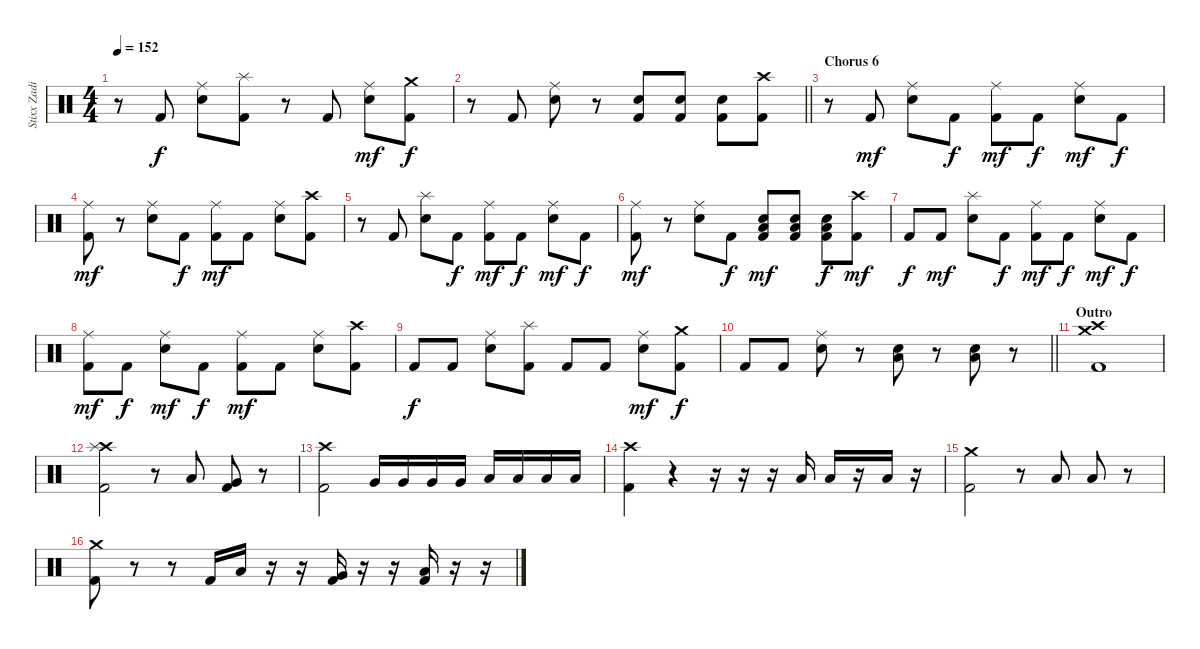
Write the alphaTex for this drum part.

\track ("Stixx Zadinia" "Stixx Zadi") {instrument percussion}
\staff {score}
\articulation defaults
\ts (4 4)
\tempo 152
\clef neutral
\ks c
r.8{dy mf} "Kick (hit) 2".8{dy f} ("Ride (middle)" "Snare (hit) 2").8 ("Splash (hit)" "Kick (hit) 2").8 r.8 "Kick (hit) 2".8 ("Ride (middle)" "Snare (hit) 2").8{dy mf} ("Crash medium (hit)" "Kick (hit) 2").8{dy f} |
\barLineRight lightlight
r.8 "Kick (hit) 2".8 ("Ride (middle)" "Snare (hit) 2").8 r.8 ("Snare (hit) 2" "Kick (hit) 2").8 ("Snare (hit) 2" "Kick (hit) 2").8 ("Snare (hit) 2" "Kick (hit) 2").8 ("Crash high (hit)" "Kick (hit) 2").8 |
\section ("" "Chorus 6")
r.8 "Kick (hit) 2".8{dy mf} ("Ride (middle)" "Snare (hit) 2").8 "Kick (hit) 2".8{dy f} ("Ride (middle)" "Kick (hit) 2").8{dy mf} "Kick (hit) 2".8{dy f} ("Ride (middle)" "Snare (hit) 2").8{dy mf} "Kick (hit) 2".8{dy f} |
("Ride (middle)" "Kick (hit) 2").8{dy mf} r.8 ("Ride (middle)" "Snare (hit) 2").8 "Kick (hit) 2".8{dy f} ("Ride (middle)" "Kick (hit) 2").8{dy mf} "Kick (hit) 2".8 ("Ride (middle)" "Snare (hit) 2").8 ("Crash high (hit)" "Kick (hit) 2").8 |
r.8 "Kick (hit) 2".8 ("Splash (hit)" "Snare (hit) 2").8 "Kick (hit) 2".8{dy f} ("Ride (middle)" "Kick (hit) 2").8{dy mf} "Kick (hit) 2".8{dy f} ("Ride (middle)" "Snare (hit) 2").8{dy mf} "Kick (hit) 2".8{dy f} |
("Ride (middle)" "Kick (hit) 2").8{dy mf} r.8 ("Ride (middle)" "Snare (hit) 2").8 "Kick (hit) 2".8{dy f} ("Low Floor Tom (hit)" "Snare (hit) 2" "Kick (hit) 2").8{dy mf} ("Low Floor Tom (hit)" "Snare (hit) 2" "Kick (hit) 2").8 ("Low Floor Tom (hit)" "Snare (hit) 2" "Kick (hit) 2").8{dy f} ("Crash high (hit)" "Kick (hit) 2").8{dy mf} |
"Kick (hit) 2".8{dy f} "Kick (hit) 2".8{dy mf} ("Splash (hit)" "Snare (hit) 2").8 "Kick (hit) 2".8{dy f} ("Ride (middle)" "Kick (hit) 2").8{dy mf} "Kick (hit) 2".8{dy f} ("Ride (middle)" "Snare (hit) 2").8{dy mf} "Kick (hit) 2".8{dy f} |
("Ride (middle)" "Kick (hit) 2").8{dy mf} "Kick (hit) 2".8{dy f} ("Ride (middle)" "Snare (hit) 2").8{dy mf} "Kick (hit) 2".8{dy f} ("Ride (middle)" "Kick (hit) 2").8{dy mf} "Kick (hit) 2".8 ("Ride (middle)" "Snare (hit) 2").8 ("Crash high (hit)" "Kick (hit) 2").8 |
"Kick (hit) 2".8{dy f} "Kick (hit) 2".8 ("Ride (middle)" "Snare (hit) 2").8 ("Splash (hit)" "Kick (hit) 2").8 "Kick (hit) 2".8 "Kick (hit) 2".8 ("Ride (middle)" "Snare (hit) 2").8{dy mf} ("Crash medium (hit)" "Kick (hit) 2").8{dy f} |
\barLineRight lightlight "Kick (hit) 2".8 "Kick (hit) 2".8
("Ride (middle)" "Snare (hit) 2").8 r.8 ("Low Floor Tom (hit)" "Snare (hit) 2").8 r.8 ("Low Floor Tom (hit)" "Snare (hit) 2").8 r.8 |
\section ("" "Outro")
("Crash high (hit)" "Crash medium (hit)" "Kick (hit) 2").1 |
("Crash high (hit)" "Splash (hit)" "Kick (hit) 2").2 r.8 "Low Tom (hit)".8 ("Very Low Tom (hit)" "Kick (hit) 2").8 r.8 |
("Crash high (hit)" "Kick (hit) 2").2 "Very Low Tom (hit)".16 "Very Low Tom (hit)".16 "Very Low Tom (hit)".16 "Very Low Tom (hit)".16 "Low Floor Tom (hit)".16 "Low Floor Tom (hit)".16 "Low Floor Tom (hit)".16 "Low Floor Tom (hit)".16 |
("Crash high (hit)" "Kick (hit) 2").4 r.4 r.16 r.16 r.16 "Low Floor Tom (hit)".16 "Low Floor Tom (hit)".16 r.16 "Low Floor Tom (hit)".16 r.16 |
("Crash medium (hit)" "Kick (hit) 2").2 r.8 "Low Floor Tom (hit)".8 "Low Floor Tom (hit)".8 r.8 |
("Crash medium (hit)" "Kick (hit) 2").8 r.8 r.8 "Kick (hit) 2".16 "Low Tom (hit)".16 r.16 r.16 ("Very Low Tom (hit)" "Kick (hit) 2").16 r.16 r.16 ("Low Floor Tom (hit)" "Kick (hit) 2").16 r.16 r.16
